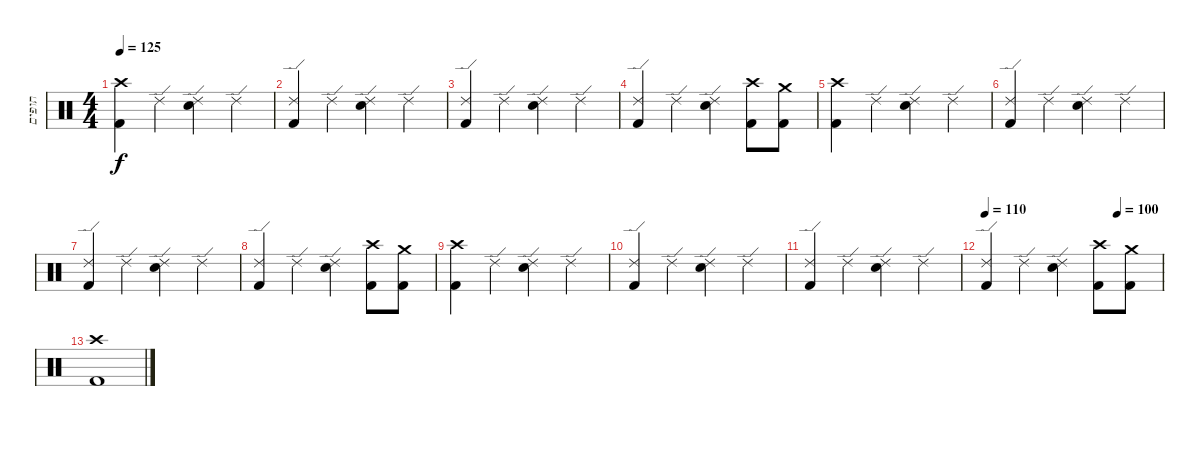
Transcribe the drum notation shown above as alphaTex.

\track ("תופים" "תופים") {instrument percussion}
\staff {score}
\articulation defaults
\ts (4 4)
\tempo 125
\clef neutral
\ks c
("Crash high (hit)" "Kick (hit) 2").4{dy f} "Ride (edge) 2".4 ("Ride (edge) 2" "Snare (hit) 2").4 "Ride (edge) 2".4 |
("Ride (edge) 2" "Kick (hit) 2").4 "Ride (edge) 2".4 ("Ride (edge) 2" "Snare (hit) 2").4 "Ride (edge) 2".4 |
("Ride (edge) 2" "Kick (hit) 2").4 "Ride (edge) 2".4 ("Ride (edge) 2" "Snare (hit) 2").4 "Ride (edge) 2".4 |
("Ride (edge) 2" "Kick (hit) 2").4 "Ride (edge) 2".4 ("Ride (edge) 2" "Snare (hit) 2").4 ("Crash high (hit)" "Kick (hit) 2").8 ("Crash medium (hit)" "Kick (hit) 2").8 |
("Crash high (hit)" "Kick (hit) 2").4 "Ride (edge) 2".4 ("Ride (edge) 2" "Snare (hit) 2").4 "Ride (edge) 2".4 |
("Ride (edge) 2" "Kick (hit) 2").4 "Ride (edge) 2".4 ("Ride (edge) 2" "Snare (hit) 2").4 "Ride (edge) 2".4 |
("Ride (edge) 2" "Kick (hit) 2").4 "Ride (edge) 2".4 ("Ride (edge) 2" "Snare (hit) 2").4 "Ride (edge) 2".4 |
("Ride (edge) 2" "Kick (hit) 2").4 "Ride (edge) 2".4 ("Ride (edge) 2" "Snare (hit) 2").4 ("Crash high (hit)" "Kick (hit) 2").8 ("Crash medium (hit)" "Kick (hit) 2").8 |
("Crash high (hit)" "Kick (hit) 2").4 "Ride (edge) 2".4 ("Ride (edge) 2" "Snare (hit) 2").4 "Ride (edge) 2".4 |
("Ride (edge) 2" "Kick (hit) 2").4 "Ride (edge) 2".4 ("Ride (edge) 2" "Snare (hit) 2").4 "Ride (edge) 2".4 |
("Ride (edge) 2" "Kick (hit) 2").4 "Ride (edge) 2".4 ("Ride (edge) 2" "Snare (hit) 2").4 "Ride (edge) 2".4 |
\tempo 110
\tempo (100 0.75)
("Ride (edge) 2" "Kick (hit) 2").4 "Ride (edge) 2".4 ("Ride (edge) 2" "Snare (hit) 2").4 ("Crash high (hit)" "Kick (hit) 2").8 ("Crash medium (hit)" "Kick (hit) 2").8 |
("Crash high (hit)" "Kick (hit) 2").1
